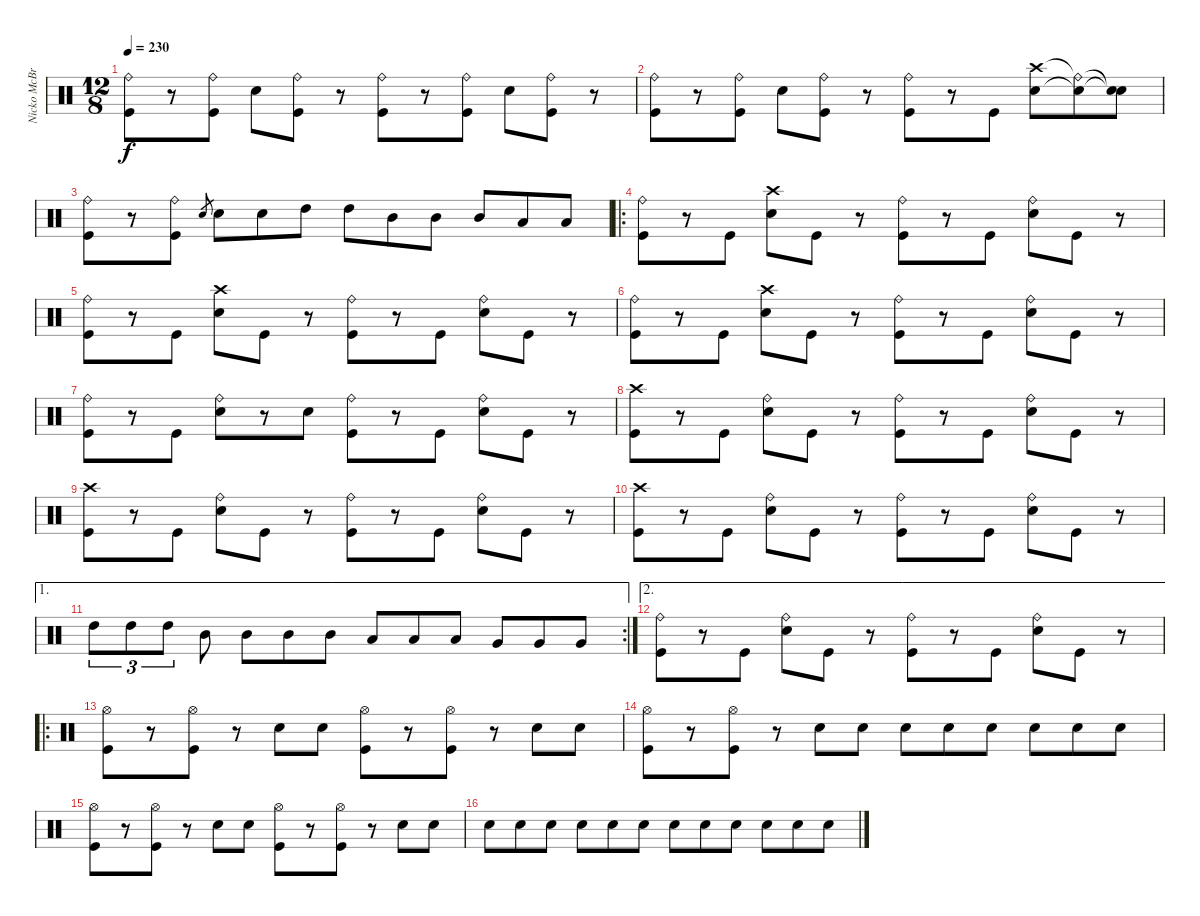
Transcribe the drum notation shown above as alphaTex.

\track ("Nicko McBrain" "Nicko McBr") {instrument percussion}
\staff {score}
\articulation defaults
\ts (12 8)
\tempo 230
\clef neutral
\ks c
("Ride (bell)" "Kick (hit)").8{dy f} r.8 ("Ride (bell)" "Kick (hit)").8 "Electric Snare (hit)".8 ("Ride (bell)" "Kick (hit)").8 r.8 ("Ride (bell)" "Kick (hit)").8 r.8 ("Ride (bell)" "Kick (hit)").8 "Electric Snare (hit)".8 ("Ride (bell)" "Kick (hit)").8 r.8 |
("Ride (bell)" "Kick (hit)").8 r.8 ("Ride (bell)" "Kick (hit)").8 "Electric Snare (hit)".8 ("Ride (bell)" "Kick (hit)").8 r.8 ("Ride (bell)" "Kick (hit)").8 r.8 "Kick (hit)".8 ("Crash high (hit)" "Electric Snare (hit)").8 ("Ride (bell)"{t} "Snare (hit)"{t}).8 ("Snare (hit)"{t} "Snare (hit)"{t}).8 |
("Ride (bell)" "Kick (hit)").8 r.8 ("Ride (bell)" "Kick (hit)").8 "Electric Snare (hit)".8{gr} "Electric Snare (hit)".8 "Electric Snare (hit)".8 "High Tom (hit)".8 "High Tom (hit)".8 "Mid Tom (hit)".8 "Mid Tom (hit)".8 "Mid Tom (hit)".8 "Low Tom (hit)".8 "Low Tom (hit)".8 |
\ro
("Ride (bell)" "Kick (hit)").8 r.8 "Kick (hit)".8 ("Crash high (hit)" "Electric Snare (hit)").8 "Kick (hit)".8 r.8 ("Ride (bell)" "Kick (hit)").8 r.8 "Kick (hit)".8 ("Ride (bell)" "Electric Snare (hit)").8 "Kick (hit)".8 r.8 |
("Ride (bell)" "Kick (hit)").8 r.8 "Kick (hit)".8 ("Crash high (hit)" "Electric Snare (hit)").8 "Kick (hit)".8 r.8 ("Ride (bell)" "Kick (hit)").8 r.8 "Kick (hit)".8 ("Ride (bell)" "Electric Snare (hit)").8 "Kick (hit)".8 r.8 |
("Ride (bell)" "Kick (hit)").8 r.8 "Kick (hit)".8 ("Crash high (hit)" "Electric Snare (hit)").8 "Kick (hit)".8 r.8 ("Ride (bell)" "Kick (hit)").8 r.8 "Kick (hit)".8 ("Ride (bell)" "Electric Snare (hit)").8 "Kick (hit)".8 r.8 |
("Ride (bell)" "Kick (hit)").8 r.8 "Kick (hit)".8 ("Ride (bell)" "Electric Snare (hit)").8 r.8 "Electric Snare (hit)".8 ("Ride (bell)" "Kick (hit)").8 r.8 "Kick (hit)".8 ("Ride (bell)" "Electric Snare (hit)").8 "Kick (hit)".8 r.8 |
("Crash high (hit)" "Kick (hit)").8 r.8 "Kick (hit)".8 ("Ride (bell)" "Electric Snare (hit)").8 "Kick (hit)".8 r.8 ("Ride (bell)" "Kick (hit)").8 r.8 "Kick (hit)".8 ("Ride (bell)" "Electric Snare (hit)").8 "Kick (hit)".8 r.8 |
("Crash high (hit)" "Kick (hit)").8 r.8 "Kick (hit)".8 ("Ride (bell)" "Electric Snare (hit)").8 "Kick (hit)".8 r.8 ("Ride (bell)" "Kick (hit)").8 r.8 "Kick (hit)".8 ("Ride (bell)" "Electric Snare (hit)").8 "Kick (hit)".8 r.8 |
("Crash high (hit)" "Kick (hit)").8 r.8 "Kick (hit)".8 ("Ride (bell)" "Electric Snare (hit)").8 "Kick (hit)".8 r.8 ("Ride (bell)" "Kick (hit)").8 r.8 "Kick (hit)".8 ("Ride (bell)" "Electric Snare (hit)").8 "Kick (hit)".8 r.8 |
\ae 1
\rc 2 "High Tom (hit)".8{tu (3 2)} "High Tom (hit)".8{tu (3 2)} "High Tom (hit)".8{tu (3 2)} "Mid Tom (hit)".8 "Mid Tom (hit)".8 "Mid Tom (hit)".8 "Mid Tom (hit)".8 "Low Tom (hit)".8 "Low Tom (hit)".8 "Low Tom (hit)".8 "Very Low Tom (hit)".8 "Very Low Tom (hit)".8 "Very Low Tom (hit)".8
|
\ae 2
("Ride (bell)" "Kick (hit)").8 r.8 "Kick (hit)".8 ("Ride (bell)" "Electric Snare (hit)").8 "Kick (hit)".8 r.8 ("Ride (bell)" "Kick (hit)").8 r.8 "Kick (hit)".8 ("Ride (bell)" "Electric Snare (hit)").8 "Kick (hit)".8 r.8 |
\ro
("Hi-Hat (open)" "Kick (hit)").8 r.8 ("Hi-Hat (open)" "Kick (hit)").8 r.8 "Electric Snare (hit)".8 "Electric Snare (hit)".8 ("Hi-Hat (open)" "Kick (hit)").8 r.8 ("Hi-Hat (open)" "Kick (hit)").8 r.8 "Electric Snare (hit)".8 "Electric Snare (hit)".8 |
("Hi-Hat (open)" "Kick (hit)").8 r.8 ("Hi-Hat (open)" "Kick (hit)").8 r.8 "Electric Snare (hit)".8 "Electric Snare (hit)".8 "Electric Snare (hit)".8 "Electric Snare (hit)".8 "Electric Snare (hit)".8 "Electric Snare (hit)".8 "Electric Snare (hit)".8 "Electric Snare (hit)".8 |
("Hi-Hat (open)" "Kick (hit)").8 r.8 ("Hi-Hat (open)" "Kick (hit)").8 r.8 "Electric Snare (hit)".8 "Electric Snare (hit)".8 ("Hi-Hat (open)" "Kick (hit)").8 r.8 ("Hi-Hat (open)" "Kick (hit)").8 r.8 "Electric Snare (hit)".8 "Electric Snare (hit)".8 |
"Electric Snare (hit)".8 "Electric Snare (hit)".8 "Electric Snare (hit)".8 "Electric Snare (hit)".8 "Electric Snare (hit)".8 "Electric Snare (hit)".8 "Electric Snare (hit)".8 "Electric Snare (hit)".8 "Electric Snare (hit)".8 "Electric Snare (hit)".8 "Electric Snare (hit)".8 "Electric Snare (hit)".8
